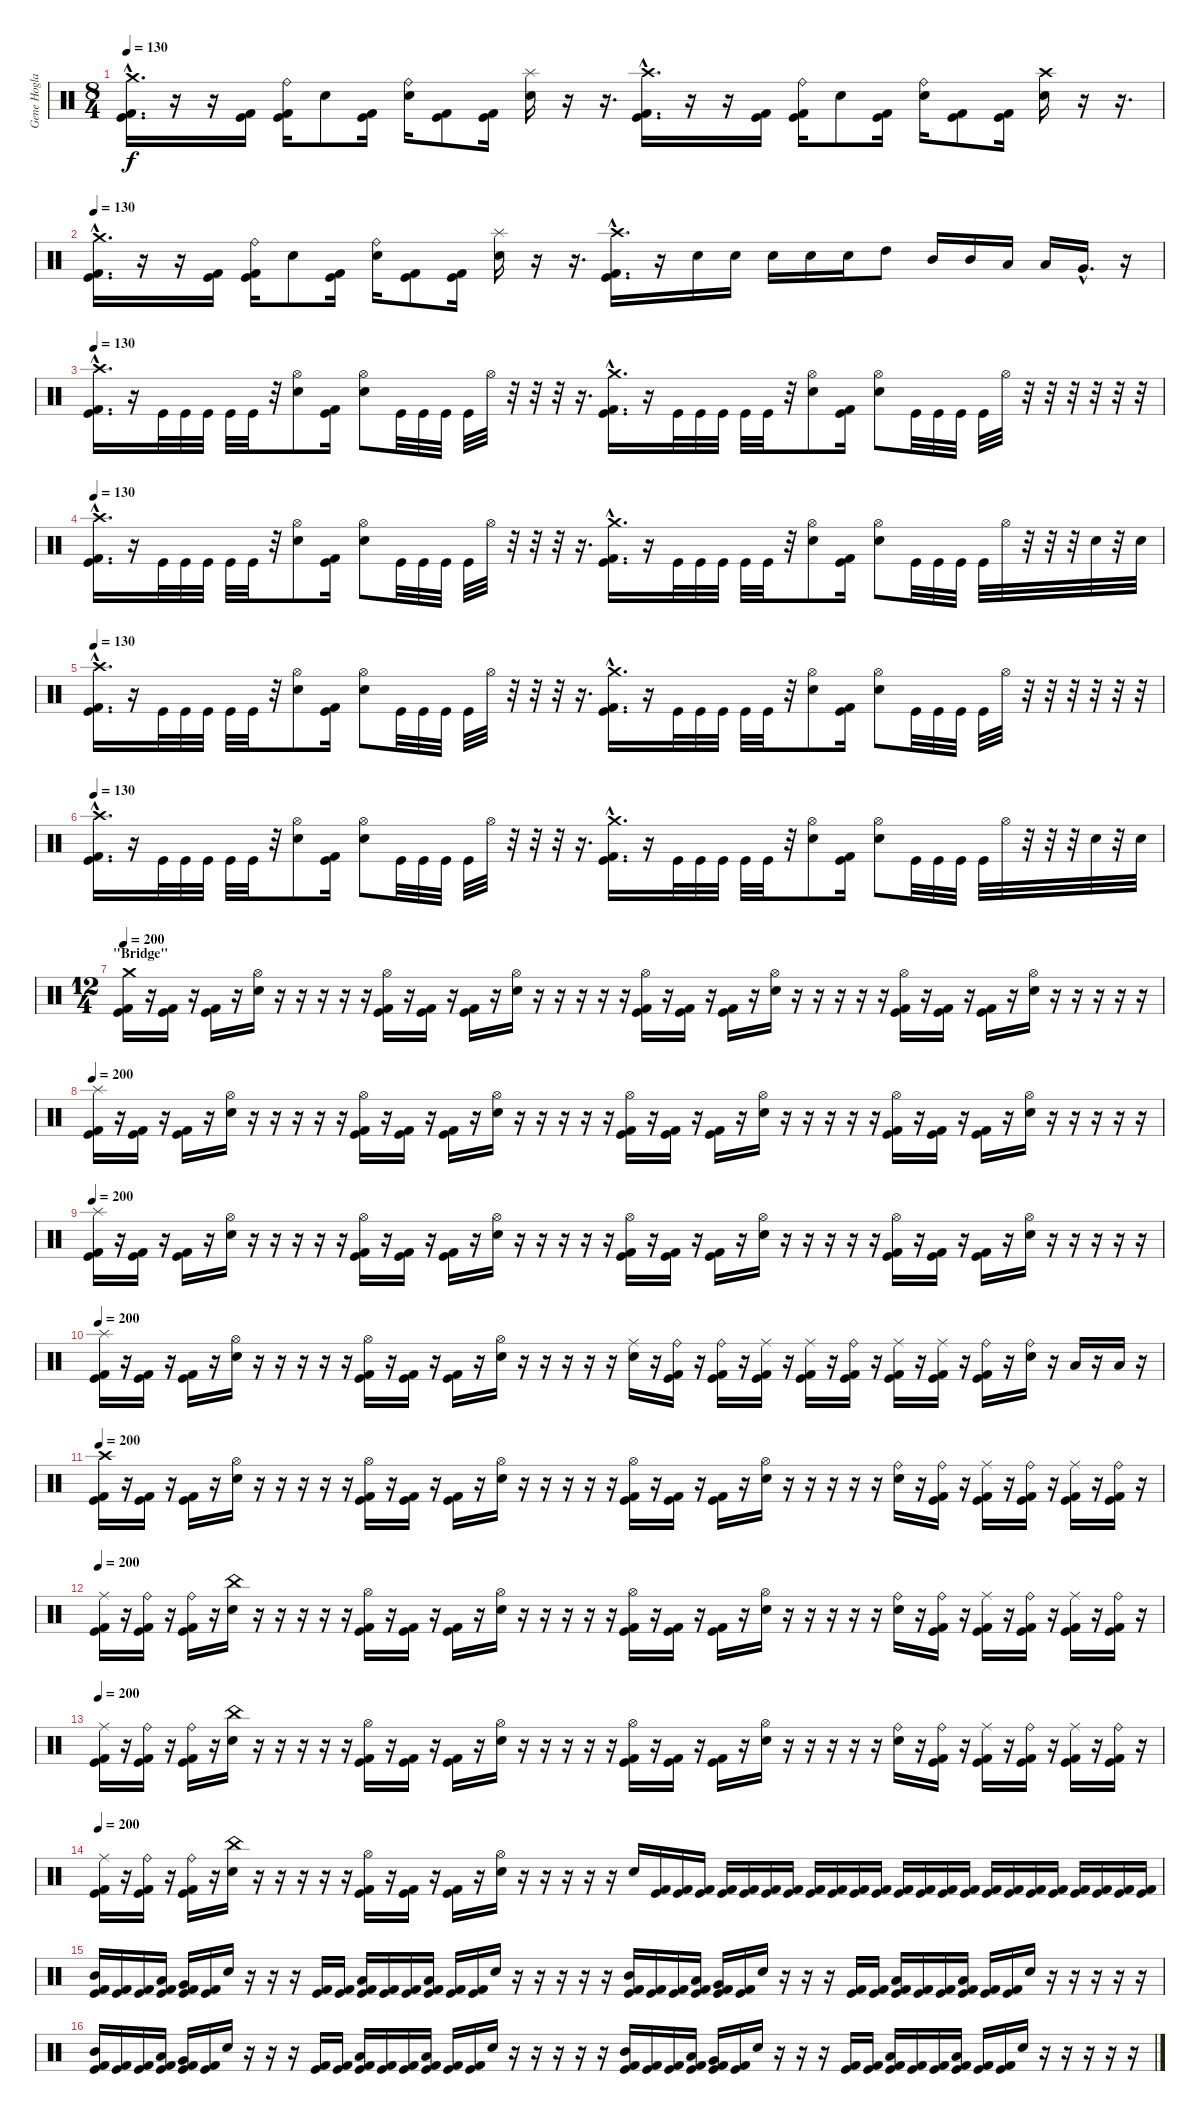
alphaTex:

\track ("Gene Hoglan" "Gene Hogla") {instrument percussion}
\staff {score}
\articulation defaults
\ts (8 4)
\tempo 130
\clef neutral
\ks c
("Crash medium (hit)"{hac} "Kick (hit) 2"{hac} "Kick (hit)"{hac}).16{d dy f} r.16 r.16 ("Kick (hit) 2" "Kick (hit)").16 ("Ride (bell)" "Kick (hit) 2" "Kick (hit)").16 "Electric Snare (hit)".8 ("Kick (hit) 2" "Kick (hit)").16 ("Ride (bell)" "Electric Snare (hit)").16 ("Kick (hit) 2" "Kick (hit)").8 ("Kick (hit) 2" "Kick (hit)").16 ("Splash (hit)" "Electric Snare (hit)").16 r.16 r.16{d} ("Crash high (hit)"{hac} "Kick (hit) 2"{hac} "Kick (hit)"{hac}).16{d} r.16 r.16 ("Kick (hit) 2" "Kick (hit)").16 ("Ride (bell)" "Kick (hit) 2" "Kick (hit)").16 "Electric Snare (hit)".8 ("Kick (hit) 2" "Kick (hit)").16 ("Ride (bell)" "Electric Snare (hit)").16 ("Kick (hit) 2" "Kick (hit)").8 ("Kick (hit) 2" "Kick (hit)").16 ("Crash high (hit)" "Electric Snare (hit)").16 r.16 r.16{d} |
\tempo 130
("Crash medium (hit)"{hac} "Kick (hit) 2"{hac} "Kick (hit)"{hac}).16{d} r.16 r.16 ("Kick (hit) 2" "Kick (hit)").16 ("Ride (bell)" "Kick (hit) 2" "Kick (hit)").16 "Electric Snare (hit)".8 ("Kick (hit) 2" "Kick (hit)").16 ("Ride (bell)" "Electric Snare (hit)").16 ("Kick (hit) 2" "Kick (hit)").8 ("Kick (hit) 2" "Kick (hit)").16 ("Splash (hit)" "Electric Snare (hit)").16 r.16 r.16{d} ("Crash high (hit)"{hac} "Kick (hit) 2"{hac} "Kick (hit)"{hac}).16{d} r.16 "Electric Snare (hit)".16 "Electric Snare (hit)".16 "Electric Snare (hit)".16 "Electric Snare (hit)".16 "Electric Snare (hit)".16 "High Tom (hit)".8 "Mid Tom (hit)".16 "Mid Tom (hit)".16 "Low Tom (hit)".16 "Low Tom (hit)".16 "Very Low Tom (hit)"{hac}.16{d} r.16 |
\tempo 130
("Crash high (hit)"{hac} "Kick (hit) 2"{hac} "Kick (hit)"{hac}).16{d} r.16 "Kick (hit)".32 "Kick (hit)".32 "Kick (hit)".32 "Kick (hit)".32 "Kick (hit)".32 r.32 ("Hi-Hat (open)" "Electric Snare (hit)").8 ("Kick (hit) 2" "Kick (hit)").16 ("Hi-Hat (open)" "Electric Snare (hit)").8 "Kick (hit)".32 "Kick (hit)".32 "Kick (hit)".32 "Kick (hit)".32 "Hi-Hat (open)".32 r.32 r.32 r.32 r.16{d} ("Crash medium (hit)"{hac} "Kick (hit) 2"{hac} "Kick (hit)"{hac}).16{d} r.16 "Kick (hit)".32 "Kick (hit)".32 "Kick (hit)".32 "Kick (hit)".32 "Kick (hit)".32 r.32 ("Hi-Hat (open)" "Electric Snare (hit)").8 ("Kick (hit) 2" "Kick (hit)").16 ("Hi-Hat (open)" "Electric Snare (hit)").8 "Kick (hit)".32 "Kick (hit)".32 "Kick (hit)".32 "Kick (hit)".32 "Hi-Hat (open)".32 r.32 r.32 r.32 r.32 r.32 r.32 |
\tempo 130
("Crash high (hit)"{hac} "Kick (hit) 2"{hac} "Kick (hit)"{hac}).16{d} r.16 "Kick (hit)".32 "Kick (hit)".32 "Kick (hit)".32 "Kick (hit)".32 "Kick (hit)".32 r.32 ("Hi-Hat (open)" "Electric Snare (hit)").8 ("Kick (hit) 2" "Kick (hit)").16 ("Hi-Hat (open)" "Electric Snare (hit)").8 "Kick (hit)".32 "Kick (hit)".32 "Kick (hit)".32 "Kick (hit)".32 "Hi-Hat (open)".32 r.32 r.32 r.32 r.16{d} ("Crash medium (hit)"{hac} "Kick (hit) 2"{hac} "Kick (hit)"{hac}).16{d} r.16 "Kick (hit)".32 "Kick (hit)".32 "Kick (hit)".32 "Kick (hit)".32 "Kick (hit)".32 r.32 ("Hi-Hat (open)" "Electric Snare (hit)").8 ("Kick (hit) 2" "Kick (hit)").16 ("Hi-Hat (open)" "Electric Snare (hit)").8 "Kick (hit)".32 "Kick (hit)".32 "Kick (hit)".32 "Kick (hit)".32 "Hi-Hat (open)".32 r.32 r.32 r.32 "Electric Snare (hit)".32 r.32 "Electric Snare (hit)".32 |
\tempo 130
("Crash high (hit)"{hac} "Kick (hit) 2"{hac} "Kick (hit)"{hac}).16{d} r.16 "Kick (hit)".32 "Kick (hit)".32 "Kick (hit)".32 "Kick (hit)".32 "Kick (hit)".32 r.32 ("Hi-Hat (open)" "Electric Snare (hit)").8 ("Kick (hit) 2" "Kick (hit)").16 ("Hi-Hat (open)" "Electric Snare (hit)").8 "Kick (hit)".32 "Kick (hit)".32 "Kick (hit)".32 "Kick (hit)".32 "Hi-Hat (open)".32 r.32 r.32 r.32 r.16{d} ("Crash medium (hit)"{hac} "Kick (hit) 2"{hac} "Kick (hit)"{hac}).16{d} r.16 "Kick (hit)".32 "Kick (hit)".32 "Kick (hit)".32 "Kick (hit)".32 "Kick (hit)".32 r.32 ("Hi-Hat (open)" "Electric Snare (hit)").8 ("Kick (hit) 2" "Kick (hit)").16 ("Hi-Hat (open)" "Electric Snare (hit)").8 "Kick (hit)".32 "Kick (hit)".32 "Kick (hit)".32 "Kick (hit)".32 "Hi-Hat (open)".32 r.32 r.32 r.32 r.32 r.32 r.32 |
\tempo 130
("Crash high (hit)"{hac} "Kick (hit) 2"{hac} "Kick (hit)"{hac}).16{d} r.16 "Kick (hit)".32 "Kick (hit)".32 "Kick (hit)".32 "Kick (hit)".32 "Kick (hit)".32 r.32 ("Hi-Hat (open)" "Electric Snare (hit)").8 ("Kick (hit) 2" "Kick (hit)").16 ("Hi-Hat (open)" "Electric Snare (hit)").8 "Kick (hit)".32 "Kick (hit)".32 "Kick (hit)".32 "Kick (hit)".32 "Hi-Hat (open)".32 r.32 r.32 r.32 r.16{d} ("Crash medium (hit)"{hac} "Kick (hit) 2"{hac} "Kick (hit)"{hac}).16{d} r.16 "Kick (hit)".32 "Kick (hit)".32 "Kick (hit)".32 "Kick (hit)".32 "Kick (hit)".32 r.32 ("Hi-Hat (open)" "Electric Snare (hit)").8 ("Kick (hit) 2" "Kick (hit)").16 ("Hi-Hat (open)" "Electric Snare (hit)").8 "Kick (hit)".32 "Kick (hit)".32 "Kick (hit)".32 "Kick (hit)".32 "Hi-Hat (open)".32 r.32 r.32 r.32 "Electric Snare (hit)".32 r.32 "Electric Snare (hit)".32 |
\ts (12 4)
\section ("" "\"Bridge\"")
\tempo 200
("Crash medium (hit)" "Kick (hit) 2" "Kick (hit)").16 r.16 ("Kick (hit) 2" "Kick (hit)").16 r.16 ("Kick (hit) 2" "Kick (hit)").16 r.16 ("Hi-Hat (open)" "Electric Snare (hit)").16 r.16 r.16 r.16 r.16 r.16 ("Hi-Hat (open)" "Kick (hit) 2" "Kick (hit)").16 r.16 ("Kick (hit) 2" "Kick (hit)").16 r.16 ("Kick (hit) 2" "Kick (hit)").16 r.16 ("Hi-Hat (open)" "Electric Snare (hit)").16 r.16 r.16 r.16 r.16 r.16 ("Hi-Hat (open)" "Kick (hit) 2" "Kick (hit)").16 r.16 ("Kick (hit) 2" "Kick (hit)").16 r.16 ("Kick (hit) 2" "Kick (hit)").16 r.16 ("Hi-Hat (open)" "Electric Snare (hit)").16 r.16 r.16 r.16 r.16 r.16 ("Hi-Hat (open)" "Kick (hit) 2" "Kick (hit)").16 r.16 ("Kick (hit) 2" "Kick (hit)").16 r.16 ("Kick (hit) 2" "Kick (hit)").16 r.16 ("Hi-Hat (open)" "Electric Snare (hit)").16 r.16 r.16 r.16 r.16 r.16 |
\tempo 200
("Splash (hit)" "Kick (hit) 2" "Kick (hit)").16 r.16 ("Kick (hit) 2" "Kick (hit)").16 r.16 ("Kick (hit) 2" "Kick (hit)").16 r.16 ("Hi-Hat (open)" "Electric Snare (hit)").16 r.16 r.16 r.16 r.16 r.16 ("Hi-Hat (open)" "Kick (hit) 2" "Kick (hit)").16 r.16 ("Kick (hit) 2" "Kick (hit)").16 r.16 ("Kick (hit) 2" "Kick (hit)").16 r.16 ("Hi-Hat (open)" "Electric Snare (hit)").16 r.16 r.16 r.16 r.16 r.16 ("Hi-Hat (open)" "Kick (hit) 2" "Kick (hit)").16 r.16 ("Kick (hit) 2" "Kick (hit)").16 r.16 ("Kick (hit) 2" "Kick (hit)").16 r.16 ("Hi-Hat (open)" "Electric Snare (hit)").16 r.16 r.16 r.16 r.16 r.16 ("Hi-Hat (open)" "Kick (hit) 2" "Kick (hit)").16 r.16 ("Kick (hit) 2" "Kick (hit)").16 r.16 ("Kick (hit) 2" "Kick (hit)").16 r.16 ("Hi-Hat (open)" "Electric Snare (hit)").16 r.16 r.16 r.16 r.16 r.16 |
\tempo 200
("Splash (hit)" "Kick (hit) 2" "Kick (hit)").16 r.16 ("Kick (hit) 2" "Kick (hit)").16 r.16 ("Kick (hit) 2" "Kick (hit)").16 r.16 ("Hi-Hat (open)" "Electric Snare (hit)").16 r.16 r.16 r.16 r.16 r.16 ("Hi-Hat (open)" "Kick (hit) 2" "Kick (hit)").16 r.16 ("Kick (hit) 2" "Kick (hit)").16 r.16 ("Kick (hit) 2" "Kick (hit)").16 r.16 ("Hi-Hat (open)" "Electric Snare (hit)").16 r.16 r.16 r.16 r.16 r.16 ("Hi-Hat (open)" "Kick (hit) 2" "Kick (hit)").16 r.16 ("Kick (hit) 2" "Kick (hit)").16 r.16 ("Kick (hit) 2" "Kick (hit)").16 r.16 ("Hi-Hat (open)" "Electric Snare (hit)").16 r.16 r.16 r.16 r.16 r.16 ("Hi-Hat (open)" "Kick (hit) 2" "Kick (hit)").16 r.16 ("Kick (hit) 2" "Kick (hit)").16 r.16 ("Kick (hit) 2" "Kick (hit)").16 r.16 ("Hi-Hat (open)" "Electric Snare (hit)").16 r.16 r.16 r.16 r.16 r.16 |
\tempo 200
("Splash (hit)" "Kick (hit) 2" "Kick (hit)").16 r.16 ("Kick (hit) 2" "Kick (hit)").16 r.16 ("Kick (hit) 2" "Kick (hit)").16 r.16 ("Hi-Hat (open)" "Electric Snare (hit)").16 r.16 r.16 r.16 r.16 r.16 ("Hi-Hat (open)" "Kick (hit) 2" "Kick (hit)").16 r.16 ("Kick (hit) 2" "Kick (hit)").16 r.16 ("Kick (hit) 2" "Kick (hit)").16 r.16 ("Hi-Hat (open)" "Electric Snare (hit)").16 r.16 r.16 r.16 r.16 r.16 ("Ride (middle)" "Electric Snare (hit)").16 r.16 ("Ride (bell)" "Kick (hit) 2" "Kick (hit)").16 r.16 ("Ride (bell)" "Kick (hit) 2" "Kick (hit)").16 r.16 ("Ride (middle)" "Kick (hit) 2" "Kick (hit)").16 r.16 ("Ride (middle)" "Kick (hit) 2" "Kick (hit)").16 r.16 ("Ride (bell)" "Kick (hit) 2" "Kick (hit)").16 r.16 ("Ride (middle)" "Kick (hit) 2" "Kick (hit)").16 r.16 ("Ride (middle)" "Kick (hit) 2" "Kick (hit)").16 r.16 ("Ride (bell)" "Kick (hit) 2" "Kick (hit)").16 r.16 ("Ride (bell)" "Electric Snare (hit)").16 r.16 "Low Tom (hit)".16 r.16 "Low Tom (hit)".16 r.16 |
\tempo 200
("Crash high (hit)" "Kick (hit) 2" "Kick (hit)").16 r.16 ("Kick (hit) 2" "Kick (hit)").16 r.16 ("Kick (hit) 2" "Kick (hit)").16 r.16 ("Hi-Hat (open)" "Electric Snare (hit)").16 r.16 r.16 r.16 r.16 r.16 ("Hi-Hat (open)" "Kick (hit) 2" "Kick (hit)").16 r.16 ("Kick (hit) 2" "Kick (hit)").16 r.16 ("Kick (hit) 2" "Kick (hit)").16 r.16 ("Hi-Hat (open)" "Electric Snare (hit)").16 r.16 r.16 r.16 r.16 r.16 ("Hi-Hat (open)" "Kick (hit) 2" "Kick (hit)").16 r.16 ("Kick (hit) 2" "Kick (hit)").16 r.16 ("Kick (hit) 2" "Kick (hit)").16 r.16 ("Hi-Hat (open)" "Electric Snare (hit)").16 r.16 r.16 r.16 r.16 r.16 ("Ride (bell)" "Electric Snare (hit)").16 r.16 ("Ride (bell)" "Kick (hit) 2" "Kick (hit)").16 r.16 ("Ride (middle)" "Kick (hit) 2" "Kick (hit)").16 r.16 ("Ride (bell)" "Kick (hit) 2" "Kick (hit)").16 r.16 ("Ride (middle)" "Kick (hit) 2" "Kick (hit)").16 r.16 ("Ride (bell)" "Kick (hit) 2" "Kick (hit)").16 r.16 |
\tempo 200
("Ride (middle)" "Kick (hit) 2" "Kick (hit)").16 r.16 ("Ride (bell)" "Kick (hit) 2" "Kick (hit)").16 r.16 ("Ride (bell)" "Kick (hit) 2" "Kick (hit)").16 r.16 ("China (hit)" "Electric Snare (hit)").16 r.16 r.16 r.16 r.16 r.16 ("Hi-Hat (open)" "Kick (hit) 2" "Kick (hit)").16 r.16 ("Kick (hit) 2" "Kick (hit)").16 r.16 ("Kick (hit) 2" "Kick (hit)").16 r.16 ("Hi-Hat (open)" "Electric Snare (hit)").16 r.16 r.16 r.16 r.16 r.16 ("Hi-Hat (open)" "Kick (hit) 2" "Kick (hit)").16 r.16 ("Kick (hit) 2" "Kick (hit)").16 r.16 ("Kick (hit) 2" "Kick (hit)").16 r.16 ("Hi-Hat (open)" "Electric Snare (hit)").16 r.16 r.16 r.16 r.16 r.16 ("Ride (bell)" "Electric Snare (hit)").16 r.16 ("Ride (bell)" "Kick (hit) 2" "Kick (hit)").16 r.16 ("Ride (middle)" "Kick (hit) 2" "Kick (hit)").16 r.16 ("Ride (bell)" "Kick (hit) 2" "Kick (hit)").16 r.16 ("Ride (middle)" "Kick (hit) 2" "Kick (hit)").16 r.16 ("Ride (bell)" "Kick (hit) 2" "Kick (hit)").16 r.16 |
\tempo 200
("Ride (middle)" "Kick (hit) 2" "Kick (hit)").16 r.16 ("Ride (bell)" "Kick (hit) 2" "Kick (hit)").16 r.16 ("Ride (bell)" "Kick (hit) 2" "Kick (hit)").16 r.16 ("China (hit)" "Electric Snare (hit)").16 r.16 r.16 r.16 r.16 r.16 ("Hi-Hat (open)" "Kick (hit) 2" "Kick (hit)").16 r.16 ("Kick (hit) 2" "Kick (hit)").16 r.16 ("Kick (hit) 2" "Kick (hit)").16 r.16 ("Hi-Hat (open)" "Electric Snare (hit)").16 r.16 r.16 r.16 r.16 r.16 ("Hi-Hat (open)" "Kick (hit) 2" "Kick (hit)").16 r.16 ("Kick (hit) 2" "Kick (hit)").16 r.16 ("Kick (hit) 2" "Kick (hit)").16 r.16 ("Hi-Hat (open)" "Electric Snare (hit)").16 r.16 r.16 r.16 r.16 r.16 ("Ride (bell)" "Electric Snare (hit)").16 r.16 ("Ride (bell)" "Kick (hit) 2" "Kick (hit)").16 r.16 ("Ride (middle)" "Kick (hit) 2" "Kick (hit)").16 r.16 ("Ride (bell)" "Kick (hit) 2" "Kick (hit)").16 r.16 ("Ride (middle)" "Kick (hit) 2" "Kick (hit)").16 r.16 ("Ride (bell)" "Kick (hit) 2" "Kick (hit)").16 r.16 |
\tempo 200
("Ride (middle)" "Kick (hit) 2" "Kick (hit)").16 r.16 ("Ride (bell)" "Kick (hit) 2" "Kick (hit)").16 r.16 ("Ride (bell)" "Kick (hit) 2" "Kick (hit)").16 r.16 ("China (hit)" "Electric Snare (hit)").16 r.16 r.16 r.16 r.16 r.16 ("Hi-Hat (open)" "Kick (hit) 2" "Kick (hit)").16 r.16 ("Kick (hit) 2" "Kick (hit)").16 r.16 ("Kick (hit) 2" "Kick (hit)").16 r.16 ("Hi-Hat (open)" "Electric Snare (hit)").16 r.16 r.16 r.16 r.16 r.16 "Electric Snare (hit)".16 ("Kick (hit) 2" "Kick (hit)").16 ("Kick (hit) 2" "Kick (hit)").16 ("Kick (hit) 2" "Kick (hit)").16 ("Kick (hit) 2" "Kick (hit)").16 ("Kick (hit) 2" "Kick (hit)").16 ("Kick (hit) 2" "Kick (hit)").16 ("Kick (hit) 2" "Kick (hit)").16 ("Kick (hit) 2" "Kick (hit)").16 ("Kick (hit) 2" "Kick (hit)").16 ("Kick (hit) 2" "Kick (hit)").16 ("Kick (hit) 2" "Kick (hit)").16 ("Kick (hit) 2" "Kick (hit)").16 ("Kick (hit) 2" "Kick (hit)").16 ("Kick (hit) 2" "Kick (hit)").16 ("Kick (hit) 2" "Kick (hit)").16 ("Kick (hit) 2" "Kick (hit)").16 ("Kick (hit) 2" "Kick (hit)").16 ("Kick (hit) 2" "Kick (hit)").16 ("Kick (hit) 2" "Kick (hit)").16 ("Kick (hit) 2" "Kick (hit)").16 ("Kick (hit) 2" "Kick (hit)").16 ("Kick (hit) 2" "Kick (hit)").16 ("Kick (hit) 2" "Kick (hit)").16 |
("Mid Tom (hit)" "Kick (hit) 2" "Kick (hit)").16 ("Kick (hit) 2" "Kick (hit)").16 ("Kick (hit) 2" "Kick (hit)").16 ("Low Tom (hit)" "Kick (hit) 2" "Kick (hit)").16 ("Very Low Tom (hit)" "Kick (hit) 2" "Kick (hit)").16 ("Kick (hit) 2" "Kick (hit)").16 "Electric Snare (hit)".16 r.16 r.16 r.16 ("Kick (hit) 2" "Kick (hit)").16 ("Kick (hit) 2" "Kick (hit)").16 ("Low Tom (hit)" "Kick (hit) 2" "Kick (hit)").16 ("Kick (hit) 2" "Kick (hit)").16 ("Kick (hit) 2" "Kick (hit)").16 ("Low Tom (hit)" "Kick (hit) 2" "Kick (hit)").16 ("Kick (hit) 2" "Kick (hit)").16 ("Kick (hit) 2" "Kick (hit)").16 "Electric Snare (hit)".16 r.16 r.16 r.16 r.16 r.16 ("Mid Tom (hit)" "Kick (hit) 2" "Kick (hit)").16 ("Kick (hit) 2" "Kick (hit)").16 ("Kick (hit) 2" "Kick (hit)").16 ("Low Tom (hit)" "Kick (hit) 2" "Kick (hit)").16 ("Very Low Tom (hit)" "Kick (hit) 2" "Kick (hit)").16 ("Kick (hit) 2" "Kick (hit)").16 "Electric Snare (hit)".16 r.16 r.16 r.16 ("Kick (hit) 2" "Kick (hit)").16 ("Kick (hit) 2" "Kick (hit)").16 ("Low Tom (hit)" "Kick (hit) 2" "Kick (hit)").16 ("Kick (hit) 2" "Kick (hit)").16 ("Kick (hit) 2" "Kick (hit)").16 ("Low Tom (hit)" "Kick (hit) 2" "Kick (hit)").16 ("Kick (hit) 2" "Kick (hit)").16 ("Kick (hit) 2" "Kick (hit)").16 "Electric Snare (hit)".16 r.16 r.16 r.16 r.16 r.16 |
("Mid Tom (hit)" "Kick (hit) 2" "Kick (hit)").16 ("Kick (hit) 2" "Kick (hit)").16 ("Kick (hit) 2" "Kick (hit)").16 ("Low Tom (hit)" "Kick (hit) 2" "Kick (hit)").16 ("Very Low Tom (hit)" "Kick (hit) 2" "Kick (hit)").16 ("Kick (hit) 2" "Kick (hit)").16 "Electric Snare (hit)".16 r.16 r.16 r.16 ("Kick (hit) 2" "Kick (hit)").16 ("Kick (hit) 2" "Kick (hit)").16 ("Low Tom (hit)" "Kick (hit) 2" "Kick (hit)").16 ("Kick (hit) 2" "Kick (hit)").16 ("Kick (hit) 2" "Kick (hit)").16 ("Low Tom (hit)" "Kick (hit) 2" "Kick (hit)").16 ("Kick (hit) 2" "Kick (hit)").16 ("Kick (hit) 2" "Kick (hit)").16 "Electric Snare (hit)".16 r.16 r.16 r.16 r.16 r.16 ("Mid Tom (hit)" "Kick (hit) 2" "Kick (hit)").16 ("Kick (hit) 2" "Kick (hit)").16 ("Kick (hit) 2" "Kick (hit)").16 ("Low Tom (hit)" "Kick (hit) 2" "Kick (hit)").16 ("Very Low Tom (hit)" "Kick (hit) 2" "Kick (hit)").16 ("Kick (hit) 2" "Kick (hit)").16 "Electric Snare (hit)".16 r.16 r.16 r.16 ("Kick (hit) 2" "Kick (hit)").16 ("Kick (hit) 2" "Kick (hit)").16 ("Low Tom (hit)" "Kick (hit) 2" "Kick (hit)").16 ("Kick (hit) 2" "Kick (hit)").16 ("Kick (hit) 2" "Kick (hit)").16 ("Low Tom (hit)" "Kick (hit) 2" "Kick (hit)").16 ("Kick (hit) 2" "Kick (hit)").16 ("Kick (hit) 2" "Kick (hit)").16 "Electric Snare (hit)".16 r.16 r.16 r.16 r.16 r.16
